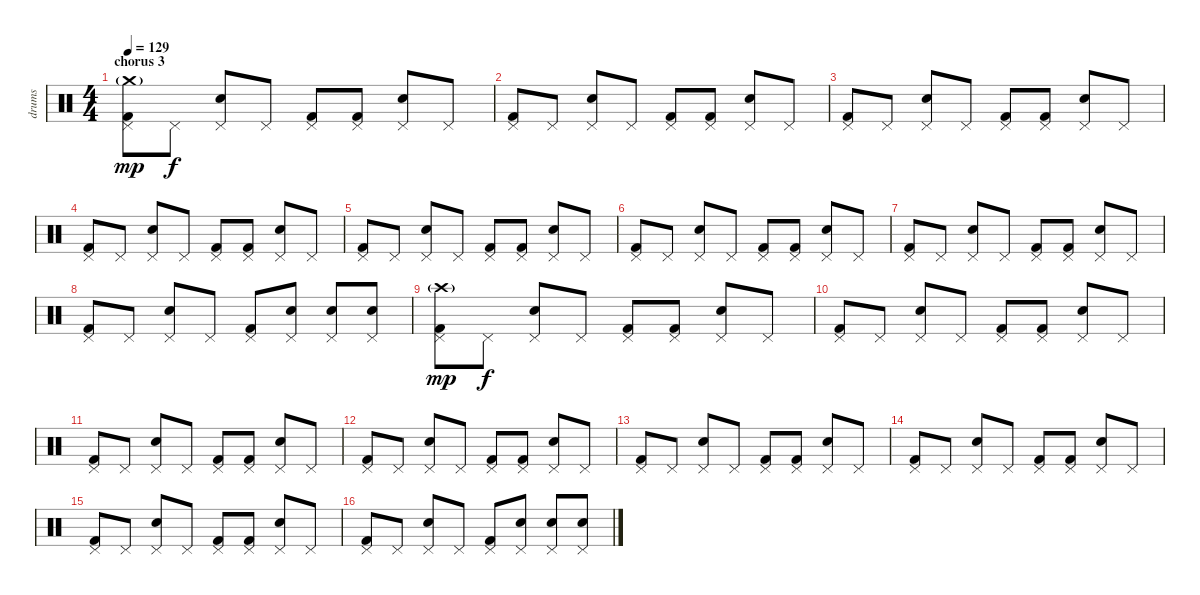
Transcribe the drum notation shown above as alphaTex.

\track ("drums" "drums") {instrument percussion}
\staff {score}
\articulation defaults
\ts (4 4)
\section ("" "chorus 3")
\tempo 129
\clef neutral
\ks c
("Kick (hit) 2" "Pedal Hi-Hat (hit)" "Crash medium (hit)"{g}).8{dy mp} "Pedal Hi-Hat (hit)".8{dy f} ("Electric Snare (hit)" "Pedal Hi-Hat (hit)").8 "Pedal Hi-Hat (hit)".8 ("Kick (hit) 2" "Pedal Hi-Hat (hit)").8 ("Kick (hit) 2" "Pedal Hi-Hat (hit)").8 ("Electric Snare (hit)" "Pedal Hi-Hat (hit)").8 "Pedal Hi-Hat (hit)".8 |
("Kick (hit) 2" "Pedal Hi-Hat (hit)").8 "Pedal Hi-Hat (hit)".8 ("Electric Snare (hit)" "Pedal Hi-Hat (hit)").8 "Pedal Hi-Hat (hit)".8 ("Kick (hit) 2" "Pedal Hi-Hat (hit)").8 ("Kick (hit) 2" "Pedal Hi-Hat (hit)").8 ("Electric Snare (hit)" "Pedal Hi-Hat (hit)").8 "Pedal Hi-Hat (hit)".8 |
("Kick (hit) 2" "Pedal Hi-Hat (hit)").8 "Pedal Hi-Hat (hit)".8 ("Electric Snare (hit)" "Pedal Hi-Hat (hit)").8 "Pedal Hi-Hat (hit)".8 ("Kick (hit) 2" "Pedal Hi-Hat (hit)").8 ("Kick (hit) 2" "Pedal Hi-Hat (hit)").8 ("Electric Snare (hit)" "Pedal Hi-Hat (hit)").8 "Pedal Hi-Hat (hit)".8 |
("Kick (hit) 2" "Pedal Hi-Hat (hit)").8 "Pedal Hi-Hat (hit)".8 ("Electric Snare (hit)" "Pedal Hi-Hat (hit)").8 "Pedal Hi-Hat (hit)".8 ("Kick (hit) 2" "Pedal Hi-Hat (hit)").8 ("Kick (hit) 2" "Pedal Hi-Hat (hit)").8 ("Electric Snare (hit)" "Pedal Hi-Hat (hit)").8 "Pedal Hi-Hat (hit)".8 |
("Kick (hit) 2" "Pedal Hi-Hat (hit)").8 "Pedal Hi-Hat (hit)".8 ("Electric Snare (hit)" "Pedal Hi-Hat (hit)").8 "Pedal Hi-Hat (hit)".8 ("Kick (hit) 2" "Pedal Hi-Hat (hit)").8 ("Kick (hit) 2" "Pedal Hi-Hat (hit)").8 ("Electric Snare (hit)" "Pedal Hi-Hat (hit)").8 "Pedal Hi-Hat (hit)".8 |
("Kick (hit) 2" "Pedal Hi-Hat (hit)").8 "Pedal Hi-Hat (hit)".8 ("Electric Snare (hit)" "Pedal Hi-Hat (hit)").8 "Pedal Hi-Hat (hit)".8 ("Kick (hit) 2" "Pedal Hi-Hat (hit)").8 ("Kick (hit) 2" "Pedal Hi-Hat (hit)").8 ("Electric Snare (hit)" "Pedal Hi-Hat (hit)").8 "Pedal Hi-Hat (hit)".8 |
("Kick (hit) 2" "Pedal Hi-Hat (hit)").8 "Pedal Hi-Hat (hit)".8 ("Electric Snare (hit)" "Pedal Hi-Hat (hit)").8 "Pedal Hi-Hat (hit)".8 ("Kick (hit) 2" "Pedal Hi-Hat (hit)").8 ("Kick (hit) 2" "Pedal Hi-Hat (hit)").8 ("Electric Snare (hit)" "Pedal Hi-Hat (hit)").8 "Pedal Hi-Hat (hit)".8 |
("Kick (hit) 2" "Pedal Hi-Hat (hit)").8 "Pedal Hi-Hat (hit)".8 ("Electric Snare (hit)" "Pedal Hi-Hat (hit)").8 "Pedal Hi-Hat (hit)".8 ("Kick (hit) 2" "Pedal Hi-Hat (hit)").8 ("Electric Snare (hit)" "Pedal Hi-Hat (hit)").8 ("Electric Snare (hit)" "Pedal Hi-Hat (hit)").8 ("Electric Snare (hit)" "Pedal Hi-Hat (hit)").8 |
("Kick (hit) 2" "Pedal Hi-Hat (hit)" "Crash high (hit)"{g}).8{dy mp} "Pedal Hi-Hat (hit)".8{dy f} ("Electric Snare (hit)" "Pedal Hi-Hat (hit)").8 "Pedal Hi-Hat (hit)".8 ("Kick (hit) 2" "Pedal Hi-Hat (hit)").8 ("Kick (hit) 2" "Pedal Hi-Hat (hit)").8 ("Electric Snare (hit)" "Pedal Hi-Hat (hit)").8 "Pedal Hi-Hat (hit)".8 |
("Kick (hit) 2" "Pedal Hi-Hat (hit)").8 "Pedal Hi-Hat (hit)".8 ("Electric Snare (hit)" "Pedal Hi-Hat (hit)").8 "Pedal Hi-Hat (hit)".8 ("Kick (hit) 2" "Pedal Hi-Hat (hit)").8 ("Kick (hit) 2" "Pedal Hi-Hat (hit)").8 ("Electric Snare (hit)" "Pedal Hi-Hat (hit)").8 "Pedal Hi-Hat (hit)".8 |
("Kick (hit) 2" "Pedal Hi-Hat (hit)").8 "Pedal Hi-Hat (hit)".8 ("Electric Snare (hit)" "Pedal Hi-Hat (hit)").8 "Pedal Hi-Hat (hit)".8 ("Kick (hit) 2" "Pedal Hi-Hat (hit)").8 ("Kick (hit) 2" "Pedal Hi-Hat (hit)").8 ("Electric Snare (hit)" "Pedal Hi-Hat (hit)").8 "Pedal Hi-Hat (hit)".8 |
("Kick (hit) 2" "Pedal Hi-Hat (hit)").8 "Pedal Hi-Hat (hit)".8 ("Electric Snare (hit)" "Pedal Hi-Hat (hit)").8 "Pedal Hi-Hat (hit)".8 ("Kick (hit) 2" "Pedal Hi-Hat (hit)").8 ("Kick (hit) 2" "Pedal Hi-Hat (hit)").8 ("Electric Snare (hit)" "Pedal Hi-Hat (hit)").8 "Pedal Hi-Hat (hit)".8 |
("Kick (hit) 2" "Pedal Hi-Hat (hit)").8 "Pedal Hi-Hat (hit)".8 ("Electric Snare (hit)" "Pedal Hi-Hat (hit)").8 "Pedal Hi-Hat (hit)".8 ("Kick (hit) 2" "Pedal Hi-Hat (hit)").8 ("Kick (hit) 2" "Pedal Hi-Hat (hit)").8 ("Electric Snare (hit)" "Pedal Hi-Hat (hit)").8 "Pedal Hi-Hat (hit)".8 |
("Kick (hit) 2" "Pedal Hi-Hat (hit)").8 "Pedal Hi-Hat (hit)".8 ("Electric Snare (hit)" "Pedal Hi-Hat (hit)").8 "Pedal Hi-Hat (hit)".8 ("Kick (hit) 2" "Pedal Hi-Hat (hit)").8 ("Kick (hit) 2" "Pedal Hi-Hat (hit)").8 ("Electric Snare (hit)" "Pedal Hi-Hat (hit)").8 "Pedal Hi-Hat (hit)".8 |
("Kick (hit) 2" "Pedal Hi-Hat (hit)").8 "Pedal Hi-Hat (hit)".8 ("Electric Snare (hit)" "Pedal Hi-Hat (hit)").8 "Pedal Hi-Hat (hit)".8 ("Kick (hit) 2" "Pedal Hi-Hat (hit)").8 ("Kick (hit) 2" "Pedal Hi-Hat (hit)").8 ("Electric Snare (hit)" "Pedal Hi-Hat (hit)").8 "Pedal Hi-Hat (hit)".8 |
("Kick (hit) 2" "Pedal Hi-Hat (hit)").8 "Pedal Hi-Hat (hit)".8 ("Electric Snare (hit)" "Pedal Hi-Hat (hit)").8 "Pedal Hi-Hat (hit)".8 ("Kick (hit) 2" "Pedal Hi-Hat (hit)").8 ("Electric Snare (hit)" "Pedal Hi-Hat (hit)").8 ("Electric Snare (hit)" "Pedal Hi-Hat (hit)").8 ("Electric Snare (hit)" "Pedal Hi-Hat (hit)").8
